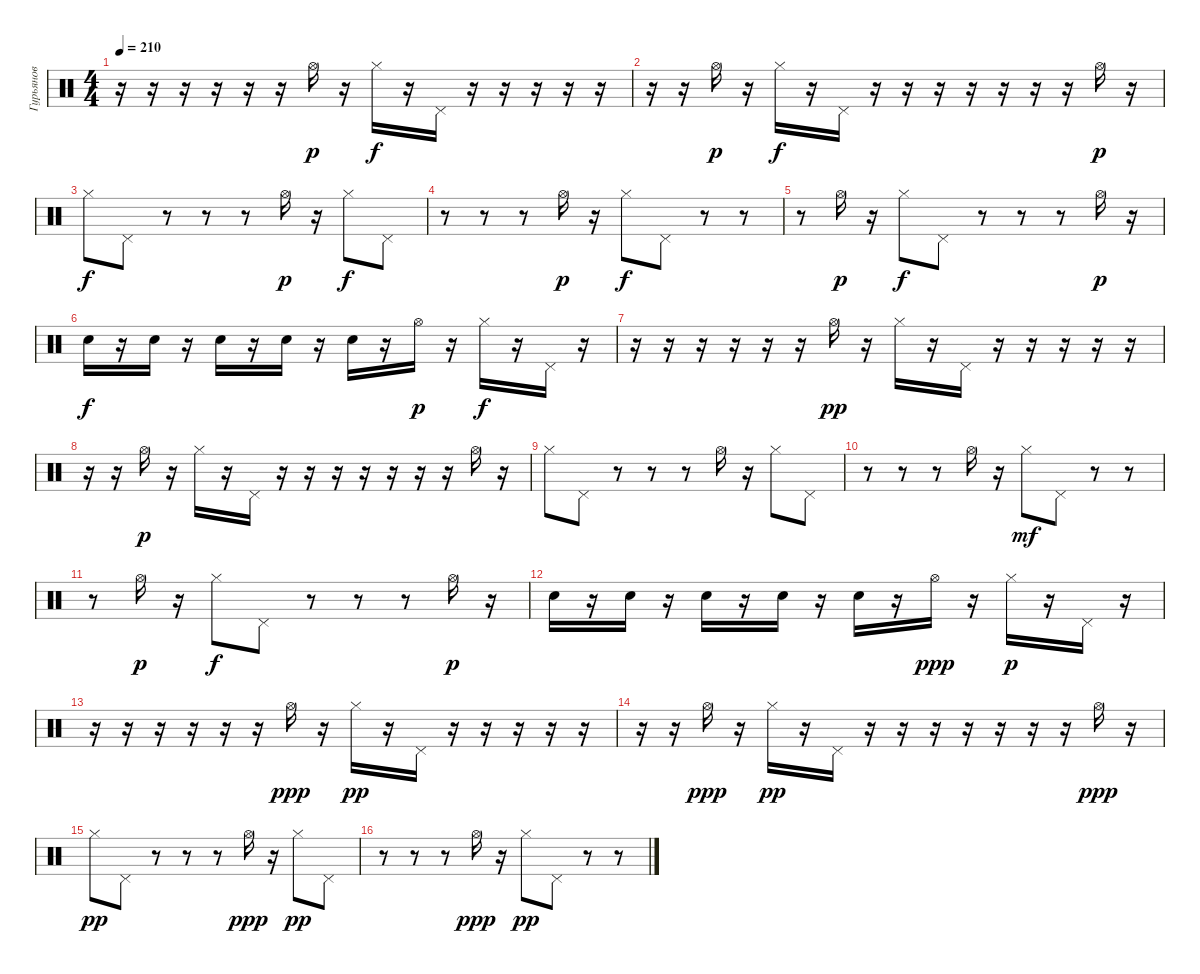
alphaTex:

\track ("Гурьянов" "Гурьянов") {instrument percussion}
\staff {score}
\articulation defaults
\ts (4 4)
\tempo 210
\clef neutral
\ks c
r.16{dy f} r.16 r.16 r.16 r.16 r.16 "Hi-Hat (open)".16{dy p} r.16 "Hi-Hat (closed)".16{dy f} r.16 "Pedal Hi-Hat (hit)".16 r.16 r.16 r.16 r.16 r.16 |
r.16 r.16 "Hi-Hat (open)".16{dy p} r.16 "Hi-Hat (closed)".16{dy f} r.16 "Pedal Hi-Hat (hit)".16 r.16 r.16 r.16 r.16 r.16 r.16 r.16 "Hi-Hat (open)".16{dy p} r.16 |
"Hi-Hat (closed)".8{dy f} "Pedal Hi-Hat (hit)".8 r.8 r.8 r.8 "Hi-Hat (open)".16{dy p} r.16 "Hi-Hat (closed)".8{dy f} "Pedal Hi-Hat (hit)".8 |
r.8 r.8 r.8 "Hi-Hat (open)".16{dy p} r.16 "Hi-Hat (closed)".8{dy f} "Pedal Hi-Hat (hit)".8 r.8 r.8 |
r.8 "Hi-Hat (open)".16{dy p} r.16 "Hi-Hat (closed)".8{dy f} "Pedal Hi-Hat (hit)".8 r.8 r.8 r.8 "Hi-Hat (open)".16{dy p} r.16 |
"Snare (hit) 2".16{dy f} r.16 "Snare (hit) 2".16 r.16 "Snare (hit) 2".16 r.16 "Snare (hit) 2".16 r.16 "Snare (hit) 2".16 r.16 "Hi-Hat (open)".16{dy p} r.16 "Hi-Hat (closed)".16{dy f} r.16 "Pedal Hi-Hat (hit)".16 r.16 |
r.16 r.16 r.16 r.16 r.16 r.16 "Hi-Hat (open)".16{dy pp} r.16 "Hi-Hat (closed)".16 r.16 "Pedal Hi-Hat (hit)".16 r.16 r.16 r.16 r.16 r.16 |
r.16 r.16 "Hi-Hat (open)".16{dy p} r.16 "Hi-Hat (closed)".16 r.16 "Pedal Hi-Hat (hit)".16 r.16 r.16 r.16 r.16 r.16 r.16 r.16 "Hi-Hat (open)".16 r.16 |
"Hi-Hat (closed)".8 "Pedal Hi-Hat (hit)".8 r.8 r.8 r.8 "Hi-Hat (open)".16 r.16 "Hi-Hat (closed)".8 "Pedal Hi-Hat (hit)".8 |
r.8 r.8 r.8 "Hi-Hat (open)".16 r.16 "Hi-Hat (closed)".8{dy mf} "Pedal Hi-Hat (hit)".8 r.8 r.8 |
r.8 "Hi-Hat (open)".16{dy p} r.16 "Hi-Hat (closed)".8{dy f} "Pedal Hi-Hat (hit)".8 r.8 r.8 r.8 "Hi-Hat (open)".16{dy p} r.16 |
"Snare (hit) 2".16 r.16 "Snare (hit) 2".16 r.16 "Snare (hit) 2".16 r.16 "Snare (hit) 2".16 r.16 "Snare (hit) 2".16 r.16 "Hi-Hat (open)".16{dy ppp} r.16 "Hi-Hat (closed)".16{dy p} r.16 "Pedal Hi-Hat (hit)".16 r.16 |
r.16 r.16 r.16 r.16 r.16 r.16 "Hi-Hat (open)".16{dy ppp} r.16 "Hi-Hat (closed)".16{dy pp} r.16 "Pedal Hi-Hat (hit)".16 r.16 r.16 r.16 r.16 r.16 |
r.16 r.16 "Hi-Hat (open)".16{dy ppp} r.16 "Hi-Hat (closed)".16{dy pp} r.16 "Pedal Hi-Hat (hit)".16 r.16 r.16 r.16 r.16 r.16 r.16 r.16 "Hi-Hat (open)".16{dy ppp} r.16 |
"Hi-Hat (closed)".8{dy pp} "Pedal Hi-Hat (hit)".8 r.8 r.8 r.8 "Hi-Hat (open)".16{dy ppp} r.16 "Hi-Hat (closed)".8{dy pp} "Pedal Hi-Hat (hit)".8 |
r.8 r.8 r.8 "Hi-Hat (open)".16{dy ppp} r.16 "Hi-Hat (closed)".8{dy pp} "Pedal Hi-Hat (hit)".8 r.8 r.8
